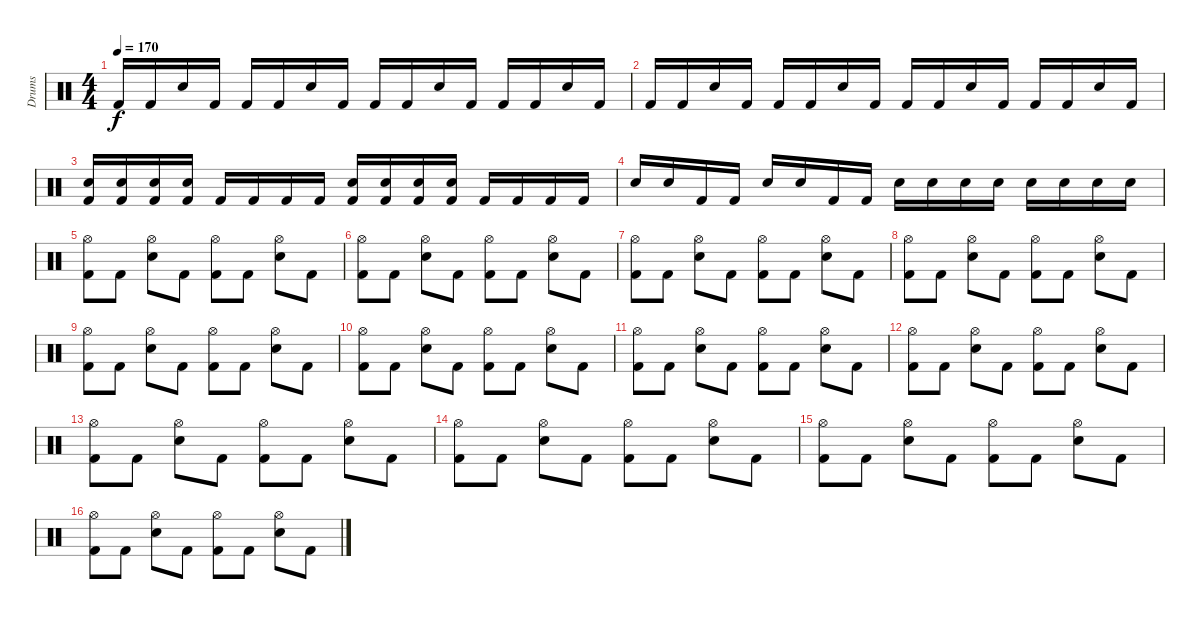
\track ("Drums" "Drums") {instrument percussion}
\staff {score}
\articulation defaults
\ts (4 4)
\tempo 170
\clef neutral
\ks c "Kick (hit) 2".16{dy f} "Kick (hit) 2".16 "Snare (hit) 2".16 "Kick (hit) 2".16 "Kick (hit) 2".16 "Kick (hit) 2".16 "Snare (hit) 2".16 "Kick (hit) 2".16 "Kick (hit) 2".16 "Kick (hit) 2".16 "Snare (hit) 2".16 "Kick (hit) 2".16 "Kick (hit) 2".16 "Kick (hit) 2".16 "Snare (hit) 2".16 "Kick (hit) 2".16
|
"Kick (hit) 2".16 "Kick (hit) 2".16 "Snare (hit) 2".16 "Kick (hit) 2".16 "Kick (hit) 2".16 "Kick (hit) 2".16 "Snare (hit) 2".16 "Kick (hit) 2".16 "Kick (hit) 2".16 "Kick (hit) 2".16 "Snare (hit) 2".16 "Kick (hit) 2".16 "Kick (hit) 2".16 "Kick (hit) 2".16 "Snare (hit) 2".16 "Kick (hit) 2".16 |
("Snare (hit) 2" "Kick (hit) 2").16 ("Snare (hit) 2" "Kick (hit) 2").16 ("Snare (hit) 2" "Kick (hit) 2").16 ("Snare (hit) 2" "Kick (hit) 2").16 "Kick (hit) 2".16 "Kick (hit) 2".16 "Kick (hit) 2".16 "Kick (hit) 2".16 ("Snare (hit) 2" "Kick (hit) 2").16 ("Snare (hit) 2" "Kick (hit) 2").16 ("Snare (hit) 2" "Kick (hit) 2").16 ("Snare (hit) 2" "Kick (hit) 2").16 "Kick (hit) 2".16 "Kick (hit) 2".16 "Kick (hit) 2".16 "Kick (hit) 2".16 |
"Snare (hit) 2".16 "Snare (hit) 2".16 "Kick (hit) 2".16 "Kick (hit) 2".16 "Snare (hit) 2".16 "Snare (hit) 2".16 "Kick (hit) 2".16 "Kick (hit) 2".16 "Snare (hit) 2".16 "Snare (hit) 2".16 "Snare (hit) 2".16 "Snare (hit) 2".16 "Snare (hit) 2".16 "Snare (hit) 2".16 "Snare (hit) 2".16 "Snare (hit) 2".16 |
("Hi-Hat (open)" "Kick (hit) 2").8 "Kick (hit) 2".8 ("Hi-Hat (open)" "Snare (hit) 2").8 "Kick (hit) 2".8 ("Hi-Hat (open)" "Kick (hit) 2").8 "Kick (hit) 2".8 ("Hi-Hat (open)" "Snare (hit) 2").8 "Kick (hit) 2".8 |
("Hi-Hat (open)" "Kick (hit) 2").8 "Kick (hit) 2".8 ("Hi-Hat (open)" "Snare (hit) 2").8 "Kick (hit) 2".8 ("Hi-Hat (open)" "Kick (hit) 2").8 "Kick (hit) 2".8 ("Hi-Hat (open)" "Snare (hit) 2").8 "Kick (hit) 2".8 |
("Hi-Hat (open)" "Kick (hit) 2").8 "Kick (hit) 2".8 ("Hi-Hat (open)" "Snare (hit) 2").8 "Kick (hit) 2".8 ("Hi-Hat (open)" "Kick (hit) 2").8 "Kick (hit) 2".8 ("Hi-Hat (open)" "Snare (hit) 2").8 "Kick (hit) 2".8 |
("Hi-Hat (open)" "Kick (hit) 2").8 "Kick (hit) 2".8 ("Hi-Hat (open)" "Snare (hit) 2").8 "Kick (hit) 2".8 ("Hi-Hat (open)" "Kick (hit) 2").8 "Kick (hit) 2".8 ("Hi-Hat (open)" "Snare (hit) 2").8 "Kick (hit) 2".8 |
("Hi-Hat (open)" "Kick (hit) 2").8 "Kick (hit) 2".8 ("Hi-Hat (open)" "Snare (hit) 2").8 "Kick (hit) 2".8 ("Hi-Hat (open)" "Kick (hit) 2").8 "Kick (hit) 2".8 ("Hi-Hat (open)" "Snare (hit) 2").8 "Kick (hit) 2".8 |
("Hi-Hat (open)" "Kick (hit) 2").8 "Kick (hit) 2".8 ("Hi-Hat (open)" "Snare (hit) 2").8 "Kick (hit) 2".8 ("Hi-Hat (open)" "Kick (hit) 2").8 "Kick (hit) 2".8 ("Hi-Hat (open)" "Snare (hit) 2").8 "Kick (hit) 2".8 |
("Hi-Hat (open)" "Kick (hit) 2").8 "Kick (hit) 2".8 ("Hi-Hat (open)" "Snare (hit) 2").8 "Kick (hit) 2".8 ("Hi-Hat (open)" "Kick (hit) 2").8 "Kick (hit) 2".8 ("Hi-Hat (open)" "Snare (hit) 2").8 "Kick (hit) 2".8 |
("Hi-Hat (open)" "Kick (hit) 2").8 "Kick (hit) 2".8 ("Hi-Hat (open)" "Snare (hit) 2").8 "Kick (hit) 2".8 ("Hi-Hat (open)" "Kick (hit) 2").8 "Kick (hit) 2".8 ("Hi-Hat (open)" "Snare (hit) 2").8 "Kick (hit) 2".8 |
("Hi-Hat (open)" "Kick (hit) 2").8 "Kick (hit) 2".8 ("Hi-Hat (open)" "Snare (hit) 2").8 "Kick (hit) 2".8 ("Hi-Hat (open)" "Kick (hit) 2").8 "Kick (hit) 2".8 ("Hi-Hat (open)" "Snare (hit) 2").8 "Kick (hit) 2".8 |
("Hi-Hat (open)" "Kick (hit) 2").8 "Kick (hit) 2".8 ("Hi-Hat (open)" "Snare (hit) 2").8 "Kick (hit) 2".8 ("Hi-Hat (open)" "Kick (hit) 2").8 "Kick (hit) 2".8 ("Hi-Hat (open)" "Snare (hit) 2").8 "Kick (hit) 2".8 |
("Hi-Hat (open)" "Kick (hit) 2").8 "Kick (hit) 2".8 ("Hi-Hat (open)" "Snare (hit) 2").8 "Kick (hit) 2".8 ("Hi-Hat (open)" "Kick (hit) 2").8 "Kick (hit) 2".8 ("Hi-Hat (open)" "Snare (hit) 2").8 "Kick (hit) 2".8 |
("Hi-Hat (open)" "Kick (hit) 2").8 "Kick (hit) 2".8 ("Hi-Hat (open)" "Snare (hit) 2").8 "Kick (hit) 2".8 ("Hi-Hat (open)" "Kick (hit) 2").8 "Kick (hit) 2".8 ("Hi-Hat (open)" "Snare (hit) 2").8 "Kick (hit) 2".8
